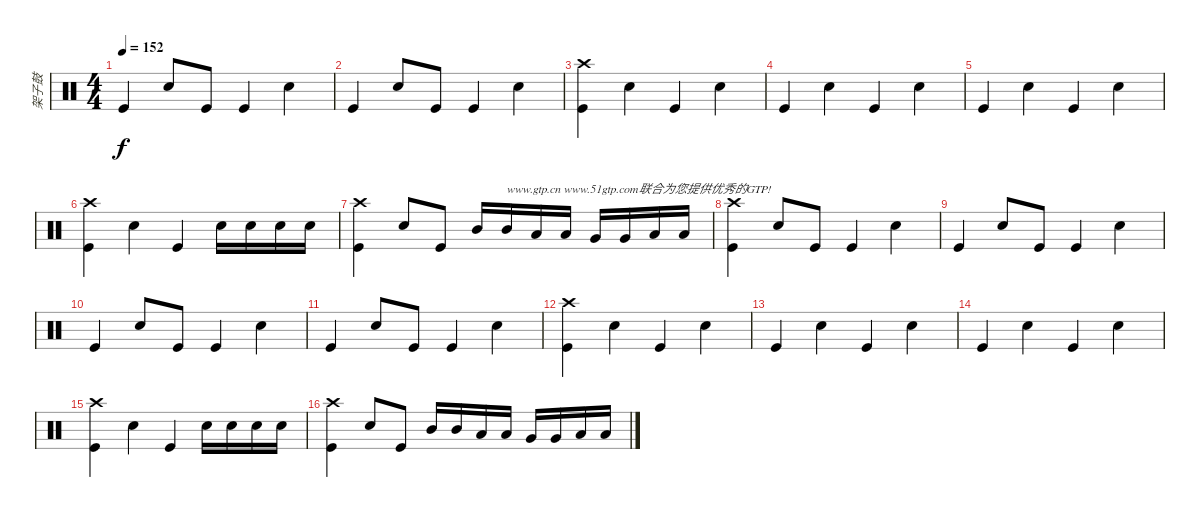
\track ("架子鼓" "架子鼓") {instrument percussion}
\staff {score}
\articulation defaults
\ts (4 4)
\tempo 152
\clef neutral
\ks c "Kick (hit)".4{dy f} "Electric Snare (hit)".8 "Kick (hit)".8 "Kick (hit)".4 "Electric Snare (hit)".4
|
"Kick (hit)".4 "Electric Snare (hit)".8 "Kick (hit)".8 "Kick (hit)".4 "Electric Snare (hit)".4 |
("Crash high (hit)" "Kick (hit)").4 "Electric Snare (hit)".4 "Kick (hit)".4 "Electric Snare (hit)".4 |
"Kick (hit)".4 "Electric Snare (hit)".4 "Kick (hit)".4 "Electric Snare (hit)".4 |
"Kick (hit)".4 "Electric Snare (hit)".4 "Kick (hit)".4 "Electric Snare (hit)".4 |
("Crash high (hit)" "Kick (hit)").4 "Electric Snare (hit)".4 "Kick (hit)".4 "Electric Snare (hit)".16 "Electric Snare (hit)".16 "Electric Snare (hit)".16 "Electric Snare (hit)".16 |
("Crash high (hit)" "Kick (hit)").4 "Electric Snare (hit)".8 "Kick (hit)".8 "Mid Tom (hit)".16 "Mid Tom (hit)".16{txt "www.gtp.cn www.51gtp.com联合为您提供优秀的GTP!"} "Low Tom (hit)".16 "Low Tom (hit)".16 "Very Low Tom (hit)".16 "Very Low Tom (hit)".16 "Low Floor Tom (hit)".16 "Low Floor Tom (hit)".16 |
("Crash high (hit)" "Kick (hit)").4 "Electric Snare (hit)".8 "Kick (hit)".8 "Kick (hit)".4 "Electric Snare (hit)".4 |
"Kick (hit)".4 "Electric Snare (hit)".8 "Kick (hit)".8 "Kick (hit)".4 "Electric Snare (hit)".4 |
"Kick (hit)".4 "Electric Snare (hit)".8 "Kick (hit)".8 "Kick (hit)".4 "Electric Snare (hit)".4 |
"Kick (hit)".4 "Electric Snare (hit)".8 "Kick (hit)".8 "Kick (hit)".4 "Electric Snare (hit)".4 |
("Crash high (hit)" "Kick (hit)").4 "Electric Snare (hit)".4 "Kick (hit)".4 "Electric Snare (hit)".4 |
"Kick (hit)".4 "Electric Snare (hit)".4 "Kick (hit)".4 "Electric Snare (hit)".4 |
"Kick (hit)".4 "Electric Snare (hit)".4 "Kick (hit)".4 "Electric Snare (hit)".4 |
("Crash high (hit)" "Kick (hit)").4 "Electric Snare (hit)".4 "Kick (hit)".4 "Electric Snare (hit)".16 "Electric Snare (hit)".16 "Electric Snare (hit)".16 "Electric Snare (hit)".16 |
("Crash high (hit)" "Kick (hit)").4 "Electric Snare (hit)".8 "Kick (hit)".8 "Mid Tom (hit)".16 "Mid Tom (hit)".16 "Low Tom (hit)".16 "Low Tom (hit)".16 "Very Low Tom (hit)".16 "Very Low Tom (hit)".16 "Low Floor Tom (hit)".16 "Low Floor Tom (hit)".16
